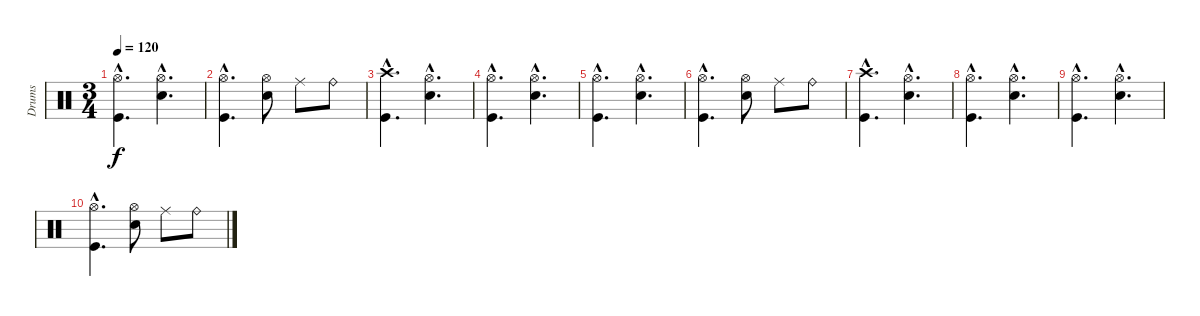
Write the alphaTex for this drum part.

\track ("Drums" "Drums") {instrument percussion}
\staff {score}
\articulation defaults
\ts (3 4)
\tempo 120
\clef neutral
\ks c
("Hi-Hat (open)"{hac} "Kick (hit)"{hac}).4{d dy f} ("Hi-Hat (open)"{hac} "Electric Snare (hit)"{hac}).4{d} |
("Hi-Hat (open)"{hac} "Kick (hit)"{hac}).4{d} ("Hi-Hat (open)" "Electric Snare (hit)").8 "Ride (middle)".8 "Ride (bell)".8 |
("Crash high (hit)"{hac} "Kick (hit)"{hac}).4{d} ("Hi-Hat (open)"{hac} "Electric Snare (hit)"{hac}).4{d} |
("Hi-Hat (open)"{hac} "Kick (hit)"{hac}).4{d} ("Hi-Hat (open)"{hac} "Electric Snare (hit)"{hac}).4{d} |
("Hi-Hat (open)"{hac} "Kick (hit)"{hac}).4{d} ("Hi-Hat (open)"{hac} "Electric Snare (hit)"{hac}).4{d} |
("Hi-Hat (open)"{hac} "Kick (hit)"{hac}).4{d} ("Hi-Hat (open)" "Electric Snare (hit)").8 "Ride (middle)".8 "Ride (bell)".8 |
("Crash high (hit)"{hac} "Kick (hit)"{hac}).4{d} ("Hi-Hat (open)"{hac} "Electric Snare (hit)"{hac}).4{d} |
("Hi-Hat (open)"{hac} "Kick (hit)"{hac}).4{d} ("Hi-Hat (open)"{hac} "Electric Snare (hit)"{hac}).4{d} |
("Hi-Hat (open)"{hac} "Kick (hit)"{hac}).4{d} ("Hi-Hat (open)"{hac} "Electric Snare (hit)"{hac}).4{d} |
("Hi-Hat (open)"{hac} "Kick (hit)"{hac}).4{d} ("Hi-Hat (open)" "Electric Snare (hit)").8 "Ride (middle)".8 "Ride (bell)".8
